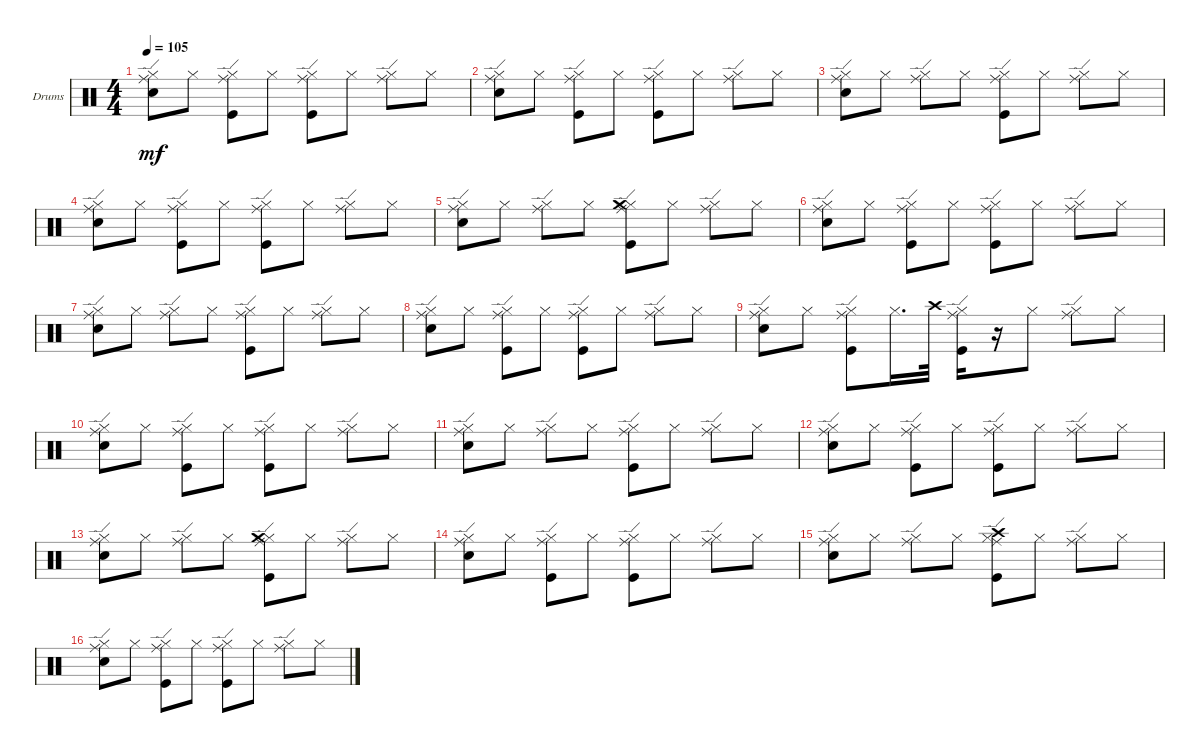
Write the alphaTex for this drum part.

\defaultSystemsLayout 4
\bracketExtendMode groupsimilarinstruments
\firstSystemTrackNameOrientation horizontal
\otherSystemsTrackNameOrientation horizontal
\track ("Drumkit" "Drums") {instrument percussion}
\staff {score}
\articulation defaults
\ts (4 4)
\tempo 105
\clef neutral
\scale
0.333333
\ks c
("Snare (hit) 2" "Ride (edge)" "Hi-Hat (closed)").8{dy mf} "Hi-Hat (closed)".8 ("Kick (hit)" "Ride (edge)" "Hi-Hat (closed)").8 "Hi-Hat (closed)".8 ("Kick (hit)" "Ride (edge)" "Hi-Hat (closed)").8 "Hi-Hat (closed)".8 ("Ride (edge)" "Hi-Hat (closed)").8 "Hi-Hat (closed)".8 |
\scale
0.333333 ("Snare (hit) 2" "Ride (edge)" "Hi-Hat (closed)").8 "Hi-Hat (closed)".8 ("Kick (hit)" "Ride (edge)" "Hi-Hat (closed)").8 "Hi-Hat (closed)".8 ("Kick (hit)" "Ride (edge)" "Hi-Hat (closed)").8 "Hi-Hat (closed)".8 ("Ride (edge)" "Hi-Hat (closed)").8 "Hi-Hat (closed)".8 |
\scale
0.333333 ("Snare (hit) 2" "Ride (edge)" "Hi-Hat (closed)").8 "Hi-Hat (closed)".8 ("Ride (edge)" "Hi-Hat (closed)").8 "Hi-Hat (closed)".8 ("Kick (hit)" "Ride (edge)" "Hi-Hat (closed)").8 "Hi-Hat (closed)".8 ("Ride (edge)" "Hi-Hat (closed)").8 "Hi-Hat (closed)".8 |
\scale
0.333333 ("Snare (hit) 2" "Ride (edge)" "Hi-Hat (closed)").8 "Hi-Hat (closed)".8 ("Kick (hit)" "Ride (edge)" "Hi-Hat (closed)").8 "Hi-Hat (closed)".8 ("Kick (hit)" "Ride (edge)" "Hi-Hat (closed)").8 "Hi-Hat (closed)".8 ("Ride (edge)" "Hi-Hat (closed)").8 "Hi-Hat (closed)".8 |
\scale
0.333333 ("Snare (hit) 2" "Ride (edge)" "Hi-Hat (closed)").8 "Hi-Hat (closed)".8 ("Ride (edge)" "Hi-Hat (closed)").8 "Hi-Hat (closed)".8 ("Hi-Hat (closed)" "Kick (hit)" "Ride (edge)" "Crash medium (hit)").8 "Hi-Hat (closed)".8 ("Hi-Hat (closed)" "Ride (edge)").8 "Hi-Hat (closed)".8 |
\scale
0.333333 ("Hi-Hat (closed)" "Snare (hit) 2" "Ride (edge)").8 "Hi-Hat (closed)".8 ("Hi-Hat (closed)" "Kick (hit)" "Ride (edge)").8 "Hi-Hat (closed)".8 ("Hi-Hat (closed)" "Kick (hit)" "Ride (edge)").8 "Hi-Hat (closed)".8 ("Hi-Hat (closed)" "Ride (edge)").8 "Hi-Hat (closed)".8 |
\scale
0.333333 ("Hi-Hat (closed)" "Snare (hit) 2" "Ride (edge)").8 "Hi-Hat (closed)".8 ("Hi-Hat (closed)" "Ride (edge)").8 "Hi-Hat (closed)".8 ("Hi-Hat (closed)" "Kick (hit)" "Ride (edge)").8 "Hi-Hat (closed)".8 ("Hi-Hat (closed)" "Ride (edge)").8 "Hi-Hat (closed)".8 |
\scale
0.333333 ("Snare (hit) 2" "Ride (edge)" "Hi-Hat (closed)").8 "Hi-Hat (closed)".8 ("Kick (hit)" "Ride (edge)" "Hi-Hat (closed)").8 "Hi-Hat (closed)".8 ("Kick (hit)" "Ride (edge)" "Hi-Hat (closed)").8 "Hi-Hat (closed)".8 ("Ride (edge)" "Hi-Hat (closed)").8 "Hi-Hat (closed)".8 |
\scale
0.333333 ("Snare (hit) 2" "Ride (edge)" "Hi-Hat (closed)").8 "Hi-Hat (closed)".8 ("Kick (hit)" "Ride (edge)" "Hi-Hat (closed)").8 "Hi-Hat (closed)".16{d} "Crash high (hit)".32 ("Kick (hit)" "Ride (edge)" "Hi-Hat (closed)").16 r.16 "Hi-Hat (closed)".8 ("Ride (edge)" "Hi-Hat (closed)").8 "Hi-Hat (closed)".8 |
\scale
0.333333 ("Snare (hit) 2" "Ride (edge)" "Hi-Hat (closed)").8 "Hi-Hat (closed)".8 ("Kick (hit)" "Ride (edge)" "Hi-Hat (closed)").8 "Hi-Hat (closed)".8 ("Kick (hit)" "Ride (edge)" "Hi-Hat (closed)").8 "Hi-Hat (closed)".8 ("Ride (edge)" "Hi-Hat (closed)").8 "Hi-Hat (closed)".8 |
\scale
0.333333 ("Snare (hit) 2" "Ride (edge)" "Hi-Hat (closed)").8 "Hi-Hat (closed)".8 ("Ride (edge)" "Hi-Hat (closed)").8 "Hi-Hat (closed)".8 ("Kick (hit)" "Ride (edge)" "Hi-Hat (closed)").8 "Hi-Hat (closed)".8 ("Ride (edge)" "Hi-Hat (closed)").8 "Hi-Hat (closed)".8 |
\scale
0.333333 ("Snare (hit) 2" "Ride (edge)" "Hi-Hat (closed)").8 "Hi-Hat (closed)".8 ("Kick (hit)" "Ride (edge)" "Hi-Hat (closed)").8 "Hi-Hat (closed)".8 ("Kick (hit)" "Ride (edge)" "Hi-Hat (closed)").8 "Hi-Hat (closed)".8 ("Ride (edge)" "Hi-Hat (closed)").8 "Hi-Hat (closed)".8 |
\scale
0.333333 ("Snare (hit) 2" "Ride (edge)" "Hi-Hat (closed)").8 "Hi-Hat (closed)".8 ("Ride (edge)" "Hi-Hat (closed)").8 "Hi-Hat (closed)".8 ("Kick (hit)" "Hi-Hat (closed)" "Ride (edge)" "Crash medium (hit)").8 "Hi-Hat (closed)".8 ("Hi-Hat (closed)" "Ride (edge)").8 "Hi-Hat (closed)".8 |
\scale
0.333333 ("Hi-Hat (closed)" "Snare (hit) 2" "Ride (edge)").8 "Hi-Hat (closed)".8 ("Hi-Hat (closed)" "Kick (hit)" "Ride (edge)").8 "Hi-Hat (closed)".8 ("Hi-Hat (closed)" "Kick (hit)" "Ride (edge)").8 "Hi-Hat (closed)".8 ("Hi-Hat (closed)" "Ride (edge)").8 "Hi-Hat (closed)".8 |
\scale
0.333333 ("Hi-Hat (closed)" "Snare (hit) 2" "Ride (edge)").8 "Hi-Hat (closed)".8 ("Hi-Hat (closed)" "Ride (edge)").8 "Hi-Hat (closed)".8 ("Kick (hit)" "Ride (edge)" "Hi-Hat (closed)" "Crash high (hit)").8 "Hi-Hat (closed)".8 ("Ride (edge)" "Hi-Hat (closed)").8 "Hi-Hat (closed)".8 |
\scale
0.333333 ("Snare (hit) 2" "Ride (edge)" "Hi-Hat (closed)").8 "Hi-Hat (closed)".8 ("Kick (hit)" "Ride (edge)" "Hi-Hat (closed)").8 "Hi-Hat (closed)".8 ("Kick (hit)" "Ride (edge)" "Hi-Hat (closed)").8 "Hi-Hat (closed)".8 ("Ride (edge)" "Hi-Hat (closed)").8 "Hi-Hat (closed)".8
